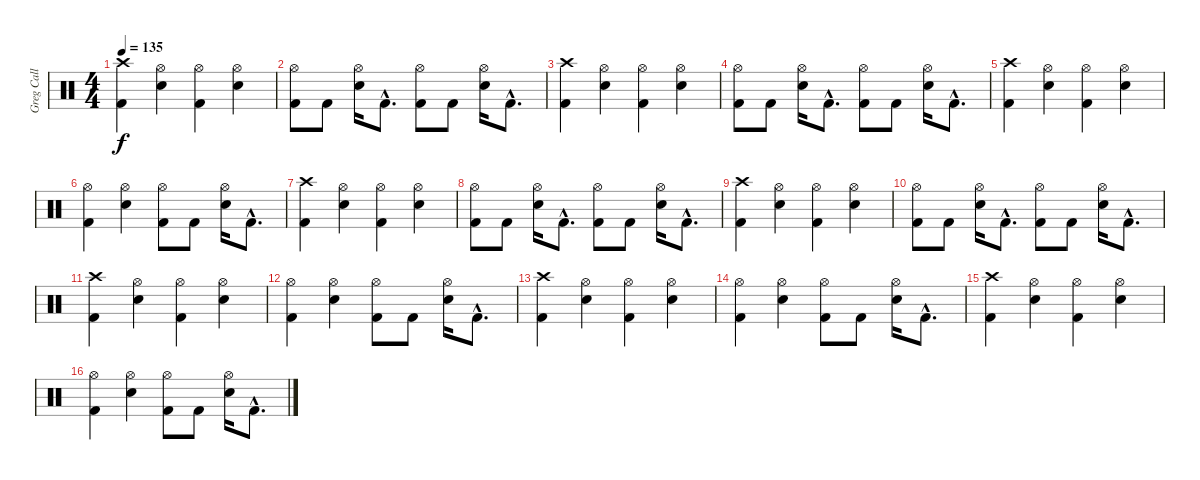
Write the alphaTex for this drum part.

\track ("Greg Call (Drums)" "Greg Call ") {instrument percussion}
\staff {score}
\articulation defaults
\ts (4 4)
\tempo 135
\clef neutral
\ks c
("Crash high (hit)" "Kick (hit) 2").4{dy f} ("Hi-Hat (open)" "Snare (hit) 2").4 ("Hi-Hat (open)" "Kick (hit) 2").4 ("Hi-Hat (open)" "Snare (hit) 2").4 |
("Hi-Hat (open)" "Kick (hit) 2").8 "Kick (hit) 2".8 ("Hi-Hat (open)" "Snare (hit) 2").16 "Kick (hit) 2"{hac}.8{d} ("Hi-Hat (open)" "Kick (hit) 2").8 "Kick (hit) 2".8 ("Hi-Hat (open)" "Snare (hit) 2").16 "Kick (hit) 2"{hac}.8{d} |
("Crash high (hit)" "Kick (hit) 2").4 ("Hi-Hat (open)" "Snare (hit) 2").4 ("Hi-Hat (open)" "Kick (hit) 2").4 ("Hi-Hat (open)" "Snare (hit) 2").4 |
("Hi-Hat (open)" "Kick (hit) 2").8 "Kick (hit) 2".8 ("Hi-Hat (open)" "Snare (hit) 2").16 "Kick (hit) 2"{hac}.8{d} ("Hi-Hat (open)" "Kick (hit) 2").8 "Kick (hit) 2".8 ("Hi-Hat (open)" "Snare (hit) 2").16 "Kick (hit) 2"{hac}.8{d} |
("Crash high (hit)" "Kick (hit) 2").4 ("Hi-Hat (open)" "Snare (hit) 2").4 ("Hi-Hat (open)" "Kick (hit) 2").4 ("Hi-Hat (open)" "Snare (hit) 2").4 |
("Hi-Hat (open)" "Kick (hit) 2").4 ("Hi-Hat (open)" "Snare (hit) 2").4 ("Hi-Hat (open)" "Kick (hit) 2").8 "Kick (hit) 2".8 ("Hi-Hat (open)" "Snare (hit) 2").16 "Kick (hit) 2"{hac}.8{d} |
("Crash high (hit)" "Kick (hit) 2").4 ("Hi-Hat (open)" "Snare (hit) 2").4 ("Hi-Hat (open)" "Kick (hit) 2").4 ("Hi-Hat (open)" "Snare (hit) 2").4 |
("Hi-Hat (open)" "Kick (hit) 2").8 "Kick (hit) 2".8 ("Hi-Hat (open)" "Snare (hit) 2").16 "Kick (hit) 2"{hac}.8{d} ("Hi-Hat (open)" "Kick (hit) 2").8 "Kick (hit) 2".8 ("Hi-Hat (open)" "Snare (hit) 2").16 "Kick (hit) 2"{hac}.8{d} |
("Crash high (hit)" "Kick (hit) 2").4 ("Hi-Hat (open)" "Snare (hit) 2").4 ("Hi-Hat (open)" "Kick (hit) 2").4 ("Hi-Hat (open)" "Snare (hit) 2").4 |
("Hi-Hat (open)" "Kick (hit) 2").8 "Kick (hit) 2".8 ("Hi-Hat (open)" "Snare (hit) 2").16 "Kick (hit) 2"{hac}.8{d} ("Hi-Hat (open)" "Kick (hit) 2").8 "Kick (hit) 2".8 ("Hi-Hat (open)" "Snare (hit) 2").16 "Kick (hit) 2"{hac}.8{d} |
("Crash high (hit)" "Kick (hit) 2").4 ("Hi-Hat (open)" "Snare (hit) 2").4 ("Hi-Hat (open)" "Kick (hit) 2").4 ("Hi-Hat (open)" "Snare (hit) 2").4 |
("Hi-Hat (open)" "Kick (hit) 2").4 ("Hi-Hat (open)" "Snare (hit) 2").4 ("Hi-Hat (open)" "Kick (hit) 2").8 "Kick (hit) 2".8 ("Hi-Hat (open)" "Snare (hit) 2").16 "Kick (hit) 2"{hac}.8{d} |
("Crash high (hit)" "Kick (hit) 2").4 ("Hi-Hat (open)" "Snare (hit) 2").4 ("Hi-Hat (open)" "Kick (hit) 2").4 ("Hi-Hat (open)" "Snare (hit) 2").4 |
("Hi-Hat (open)" "Kick (hit) 2").4 ("Hi-Hat (open)" "Snare (hit) 2").4 ("Hi-Hat (open)" "Kick (hit) 2").8 "Kick (hit) 2".8 ("Hi-Hat (open)" "Snare (hit) 2").16 "Kick (hit) 2"{hac}.8{d} |
("Crash high (hit)" "Kick (hit) 2").4 ("Hi-Hat (open)" "Snare (hit) 2").4 ("Hi-Hat (open)" "Kick (hit) 2").4 ("Hi-Hat (open)" "Snare (hit) 2").4 |
("Hi-Hat (open)" "Kick (hit) 2").4 ("Hi-Hat (open)" "Snare (hit) 2").4 ("Hi-Hat (open)" "Kick (hit) 2").8 "Kick (hit) 2".8 ("Hi-Hat (open)" "Snare (hit) 2").16 "Kick (hit) 2"{hac}.8{d}
